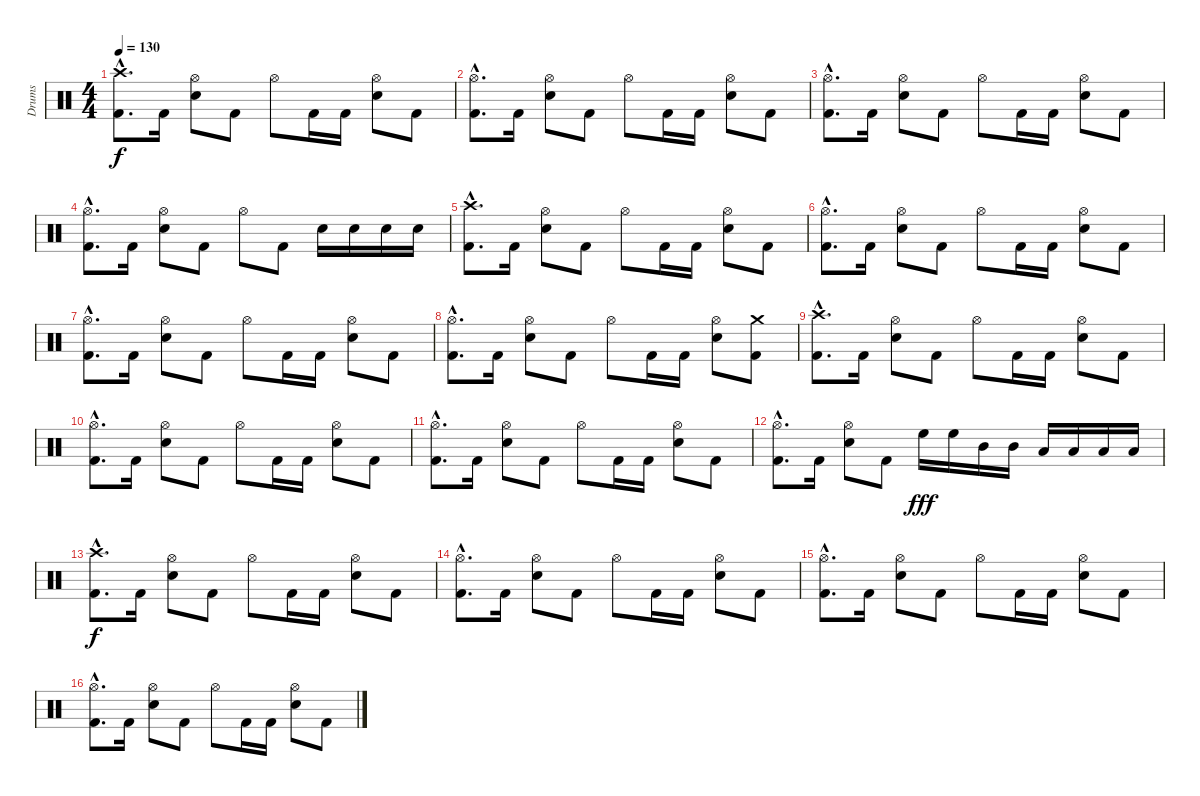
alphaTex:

\track ("Drums" "Drums") {instrument percussion}
\staff {score}
\articulation defaults
\ts (4 4)
\tempo 130
\clef neutral
\ks c
("Crash high (hit)"{hac} "Kick (hit) 2"{hac}).8{d dy f} "Kick (hit) 2".16 ("Hi-Hat (open)" "Snare (hit) 2").8 "Kick (hit) 2".8 "Hi-Hat (open)".8 "Kick (hit) 2".16 "Kick (hit) 2".16 ("Hi-Hat (open)" "Snare (hit) 2").8 "Kick (hit) 2".8 |
("Hi-Hat (open)"{hac} "Kick (hit) 2"{hac}).8{d} "Kick (hit) 2".16 ("Hi-Hat (open)" "Snare (hit) 2").8 "Kick (hit) 2".8 "Hi-Hat (open)".8 "Kick (hit) 2".16 "Kick (hit) 2".16 ("Hi-Hat (open)" "Snare (hit) 2").8 "Kick (hit) 2".8 |
("Hi-Hat (open)"{hac} "Kick (hit) 2"{hac}).8{d} "Kick (hit) 2".16 ("Hi-Hat (open)" "Snare (hit) 2").8 "Kick (hit) 2".8 "Hi-Hat (open)".8 "Kick (hit) 2".16 "Kick (hit) 2".16 ("Hi-Hat (open)" "Snare (hit) 2").8 "Kick (hit) 2".8 |
("Hi-Hat (open)"{hac} "Kick (hit) 2"{hac}).8{d} "Kick (hit) 2".16 ("Hi-Hat (open)" "Snare (hit) 2").8 "Kick (hit) 2".8 "Hi-Hat (open)".8 "Kick (hit) 2".8 "Snare (hit) 2".16 "Snare (hit) 2".16 "Snare (hit) 2".16 "Snare (hit) 2".16 |
("Crash high (hit)"{hac} "Kick (hit) 2"{hac}).8{d} "Kick (hit) 2".16 ("Hi-Hat (open)" "Snare (hit) 2").8 "Kick (hit) 2".8 "Hi-Hat (open)".8 "Kick (hit) 2".16 "Kick (hit) 2".16 ("Hi-Hat (open)" "Snare (hit) 2").8 "Kick (hit) 2".8 |
("Hi-Hat (open)"{hac} "Kick (hit) 2"{hac}).8{d} "Kick (hit) 2".16 ("Hi-Hat (open)" "Snare (hit) 2").8 "Kick (hit) 2".8 "Hi-Hat (open)".8 "Kick (hit) 2".16 "Kick (hit) 2".16 ("Hi-Hat (open)" "Snare (hit) 2").8 "Kick (hit) 2".8 |
("Hi-Hat (open)"{hac} "Kick (hit) 2"{hac}).8{d} "Kick (hit) 2".16 ("Hi-Hat (open)" "Snare (hit) 2").8 "Kick (hit) 2".8 "Hi-Hat (open)".8 "Kick (hit) 2".16 "Kick (hit) 2".16 ("Hi-Hat (open)" "Snare (hit) 2").8 "Kick (hit) 2".8 |
("Hi-Hat (open)"{hac} "Kick (hit) 2"{hac}).8{d} "Kick (hit) 2".16 ("Hi-Hat (open)" "Snare (hit) 2").8 "Kick (hit) 2".8 "Hi-Hat (open)".8 "Kick (hit) 2".16 "Kick (hit) 2".16 ("Hi-Hat (open)" "Snare (hit) 2").8 ("Crash medium (hit)" "Kick (hit) 2").8 |
("Crash high (hit)"{hac} "Kick (hit) 2"{hac}).8{d} "Kick (hit) 2".16 ("Hi-Hat (open)" "Snare (hit) 2").8 "Kick (hit) 2".8 "Hi-Hat (open)".8 "Kick (hit) 2".16 "Kick (hit) 2".16 ("Hi-Hat (open)" "Snare (hit) 2").8 "Kick (hit) 2".8 |
("Hi-Hat (open)"{hac} "Kick (hit) 2"{hac}).8{d} "Kick (hit) 2".16 ("Hi-Hat (open)" "Snare (hit) 2").8 "Kick (hit) 2".8 "Hi-Hat (open)".8 "Kick (hit) 2".16 "Kick (hit) 2".16 ("Hi-Hat (open)" "Snare (hit) 2").8 "Kick (hit) 2".8 |
("Hi-Hat (open)"{hac} "Kick (hit) 2"{hac}).8{d} "Kick (hit) 2".16 ("Hi-Hat (open)" "Snare (hit) 2").8 "Kick (hit) 2".8 "Hi-Hat (open)".8 "Kick (hit) 2".16 "Kick (hit) 2".16 ("Hi-Hat (open)" "Snare (hit) 2").8 "Kick (hit) 2".8 |
("Hi-Hat (open)"{hac} "Kick (hit) 2"{hac}).8{d} "Kick (hit) 2".16 ("Hi-Hat (open)" "Snare (hit) 2").8 "Kick (hit) 2".8 "High Floor Tom (hit)".16{dy fff} "High Floor Tom (hit)".16 "Mid Tom (hit)".16 "Mid Tom (hit)".16 "Low Tom (hit)".16 "Low Tom (hit)".16 "Low Floor Tom (hit)".16 "Low Floor Tom (hit)".16 |
("Crash high (hit)"{hac} "Kick (hit) 2"{hac}).8{d dy f} "Kick (hit) 2".16 ("Hi-Hat (open)" "Snare (hit) 2").8 "Kick (hit) 2".8 "Hi-Hat (open)".8 "Kick (hit) 2".16 "Kick (hit) 2".16 ("Hi-Hat (open)" "Snare (hit) 2").8 "Kick (hit) 2".8 |
("Hi-Hat (open)"{hac} "Kick (hit) 2"{hac}).8{d} "Kick (hit) 2".16 ("Hi-Hat (open)" "Snare (hit) 2").8 "Kick (hit) 2".8 "Hi-Hat (open)".8 "Kick (hit) 2".16 "Kick (hit) 2".16 ("Hi-Hat (open)" "Snare (hit) 2").8 "Kick (hit) 2".8 |
("Hi-Hat (open)"{hac} "Kick (hit) 2"{hac}).8{d} "Kick (hit) 2".16 ("Hi-Hat (open)" "Snare (hit) 2").8 "Kick (hit) 2".8 "Hi-Hat (open)".8 "Kick (hit) 2".16 "Kick (hit) 2".16 ("Hi-Hat (open)" "Snare (hit) 2").8 "Kick (hit) 2".8 |
("Hi-Hat (open)"{hac} "Kick (hit) 2"{hac}).8{d} "Kick (hit) 2".16 ("Hi-Hat (open)" "Snare (hit) 2").8 "Kick (hit) 2".8 "Hi-Hat (open)".8 "Kick (hit) 2".16 "Kick (hit) 2".16 ("Hi-Hat (open)" "Snare (hit) 2").8 "Kick (hit) 2".8
